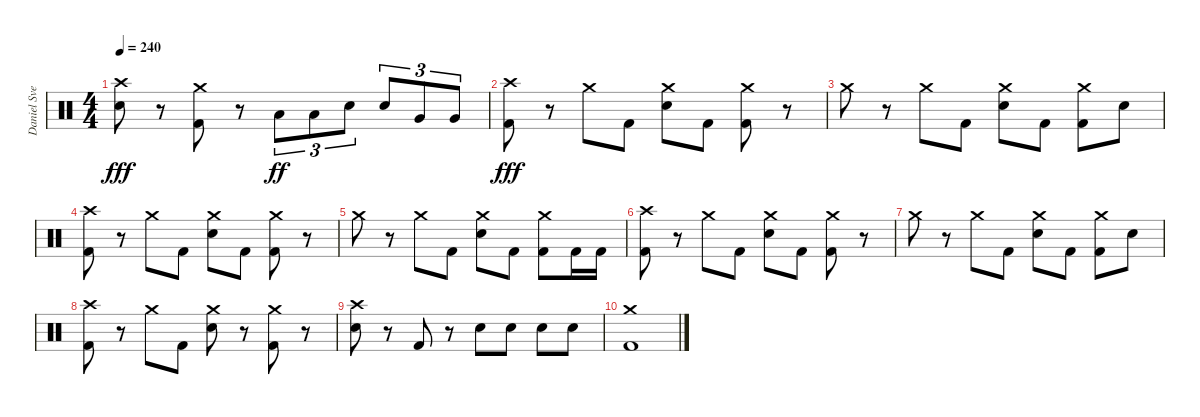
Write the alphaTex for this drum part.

\track ("Daniel Svensson" "Daniel Sve") {instrument percussion}
\staff {score}
\articulation defaults
\ts (4 4)
\tempo 240
\clef neutral
\ks c
("Crash high (hit)" "Electric Snare (hit)").8{dy fff} r.8 ("Crash medium (hit)" "Kick (hit) 2").8 r.8 "Low Floor Tom (hit)".8{tu (3 2) dy ff} "Low Floor Tom (hit)".8{tu (3 2)} "Electric Snare (hit)".8{tu (3 2)} "Electric Snare (hit)".8{tu (3 2)} "Very Low Tom (hit)".8{tu (3 2)} "Very Low Tom (hit)".8{tu (3 2)} |
("Crash high (hit)" "Kick (hit) 2").8{dy fff} r.8 "Crash medium (hit)".8 "Kick (hit) 2".8 ("Crash medium (hit)" "Electric Snare (hit)").8 "Kick (hit) 2".8 ("Crash medium (hit)" "Kick (hit) 2").8 r.8 |
"Crash medium (hit)".8 r.8 "Crash medium (hit)".8 "Kick (hit) 2".8 ("Crash medium (hit)" "Electric Snare (hit)").8 "Kick (hit) 2".8 ("Crash medium (hit)" "Kick (hit) 2").8 "Electric Snare (hit)".8 |
("Crash high (hit)" "Kick (hit) 2").8 r.8 "Crash medium (hit)".8 "Kick (hit) 2".8 ("Crash medium (hit)" "Electric Snare (hit)").8 "Kick (hit) 2".8 ("Crash medium (hit)" "Kick (hit) 2").8 r.8 |
"Crash medium (hit)".8 r.8 "Crash medium (hit)".8 "Kick (hit) 2".8 ("Crash medium (hit)" "Electric Snare (hit)").8 "Kick (hit) 2".8 ("Crash medium (hit)" "Kick (hit) 2").8 "Kick (hit) 2".16 "Kick (hit) 2".16 |
("Crash high (hit)" "Kick (hit) 2").8 r.8 "Crash medium (hit)".8 "Kick (hit) 2".8 ("Crash medium (hit)" "Electric Snare (hit)").8 "Kick (hit) 2".8 ("Crash medium (hit)" "Kick (hit) 2").8 r.8 |
"Crash medium (hit)".8 r.8 "Crash medium (hit)".8 "Kick (hit) 2".8 ("Crash medium (hit)" "Electric Snare (hit)").8 "Kick (hit) 2".8 ("Crash medium (hit)" "Kick (hit) 2").8 "Electric Snare (hit)".8 |
("Crash high (hit)" "Kick (hit) 2").8 r.8 "Crash medium (hit)".8 "Kick (hit) 2".8 ("Crash medium (hit)" "Electric Snare (hit)").8 r.8 ("Crash medium (hit)" "Kick (hit) 2").8 r.8 |
("Crash high (hit)" "Electric Snare (hit)").8 r.8 "Kick (hit) 2".8 r.8 "Electric Snare (hit)".8 "Electric Snare (hit)".8 "Electric Snare (hit)".8 "Electric Snare (hit)".8 |
("Crash medium (hit)" "Kick (hit) 2").1
